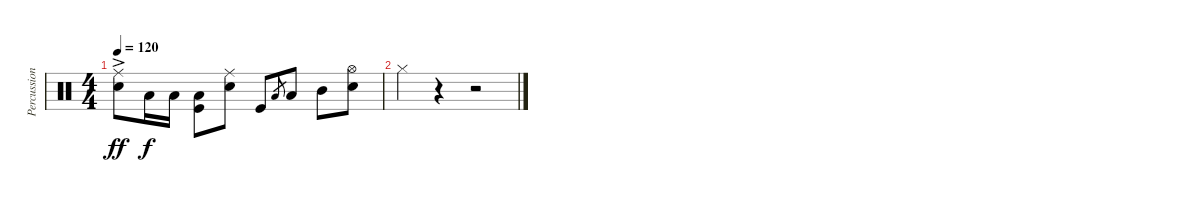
\track ("Percussion" "Percussion") {instrument percussion}
\staff {score}
\articulation defaults
\ts (4 4)
\tempo 120
\clef neutral
\ks c
("Ride (middle)"{ac} "Snare (hit) 2").8{dy ff} "Low Tom (hit)".16{dy f} "Low Tom (hit)".16 ("Low Tom (hit)" "Kick (hit)").8 ("Ride (middle)" "Snare (hit) 2").8 "Kick (hit)".8 "Low Tom (hit)".8{gr} "Low Tom (hit)".8 "Mid Tom (hit)".8 ("Hi-Hat (open)" "Snare (hit) 2").8 |
"Hi-Hat (closed)".4 r.4 r.2
